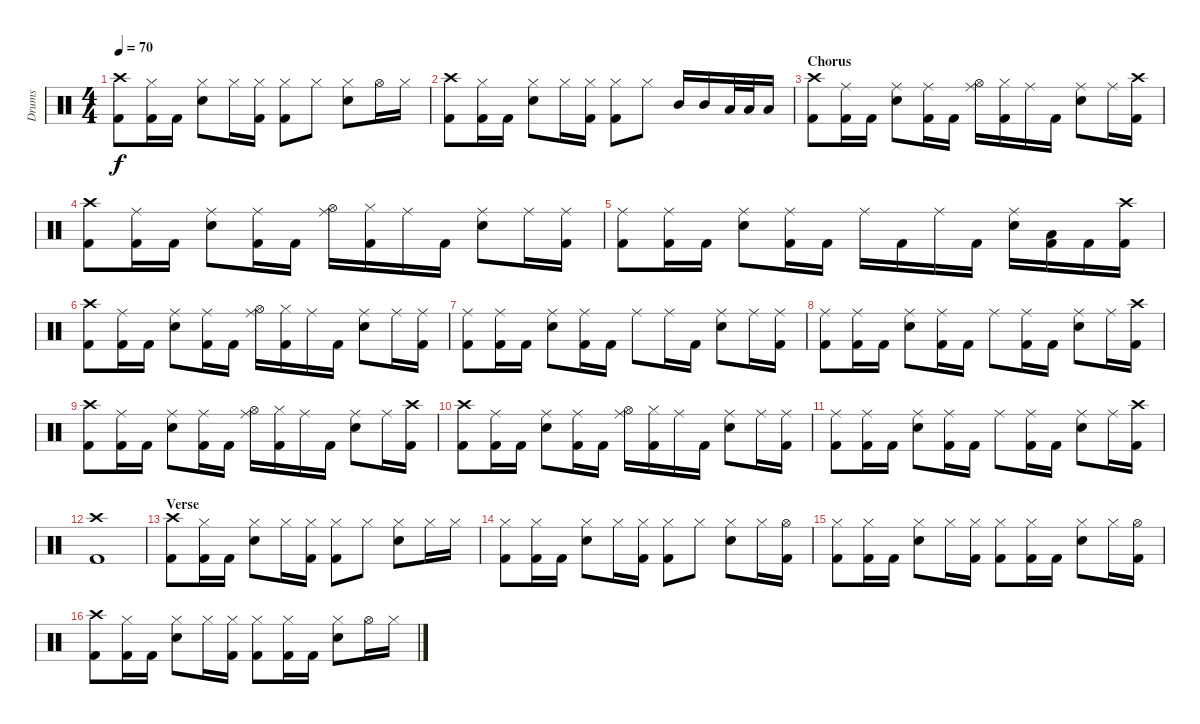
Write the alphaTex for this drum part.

\track ("Drums" "Drums") {instrument percussion}
\staff {score}
\articulation defaults
\ts (4 4)
\tempo 70
\clef neutral
\ks c
("Crash high (hit)" "Kick (hit) 2").8{dy f} ("Hi-Hat (closed)" "Kick (hit) 2").16 "Kick (hit) 2".16 ("Hi-Hat (closed)" "Electric Snare (hit)").8 "Hi-Hat (closed)".16 ("Hi-Hat (closed)" "Kick (hit) 2").16 ("Hi-Hat (closed)" "Kick (hit) 2").8 "Hi-Hat (closed)".8 ("Hi-Hat (closed)" "Electric Snare (hit)").8 "Hi-Hat (open)".16 "Hi-Hat (closed)".16 |
("Crash high (hit)" "Kick (hit) 2").8 ("Hi-Hat (closed)" "Kick (hit) 2").16 "Kick (hit) 2".16 ("Hi-Hat (closed)" "Electric Snare (hit)").8 "Hi-Hat (closed)".16 ("Hi-Hat (closed)" "Kick (hit) 2").16 ("Hi-Hat (closed)" "Kick (hit) 2").8 "Hi-Hat (closed)".8 "Mid Tom (hit)".16 "Mid Tom (hit)".16 "Low Floor Tom (hit)".32 "Low Floor Tom (hit)".32 "Low Tom (hit)".16 |
\section ("" "Chorus")
("Crash high (hit)" "Kick (hit) 2").8 ("Ride (middle)" "Kick (hit) 2").16 "Kick (hit) 2".16 ("Ride (middle)" "Electric Snare (hit)").8 ("Ride (middle)" "Kick (hit) 2").16 "Kick (hit) 2".16 ("Ride (middle)" "Hi-Hat (open)").16 ("Hi-Hat (closed)" "Kick (hit) 2").16 "Ride (middle)".16 "Kick (hit) 2".16 ("Ride (middle)" "Electric Snare (hit)").8 "Ride (middle)".16 ("Crash high (hit)" "Kick (hit) 2").16 |
("Crash high (hit)" "Kick (hit) 2").8 ("Ride (middle)" "Kick (hit) 2").16 "Kick (hit) 2".16 ("Ride (middle)" "Electric Snare (hit)").8 ("Ride (middle)" "Kick (hit) 2").16 "Kick (hit) 2".16 ("Ride (middle)" "Hi-Hat (open)").16 ("Hi-Hat (closed)" "Kick (hit) 2").16 "Ride (middle)".16 "Kick (hit) 2".16 ("Ride (middle)" "Electric Snare (hit)").8 "Ride (middle)".16 ("Ride (middle)" "Kick (hit) 2").16 |
("Ride (middle)" "Kick (hit) 2").8 ("Ride (middle)" "Kick (hit) 2").16 "Kick (hit) 2".16 ("Ride (middle)" "Electric Snare (hit)").8 ("Ride (middle)" "Kick (hit) 2").16 "Kick (hit) 2".16 "Ride (middle)".16 "Kick (hit) 2".16 "Ride (middle)".16 "Kick (hit) 2".16 ("Ride (middle)" "Electric Snare (hit)").16 ("Low Tom (hit)" "Kick (hit) 2").16 "Kick (hit) 2".16 ("Crash high (hit)" "Kick (hit) 2").16 |
("Crash high (hit)" "Kick (hit) 2").8 ("Ride (middle)" "Kick (hit) 2").16 "Kick (hit) 2".16 ("Ride (middle)" "Electric Snare (hit)").8 ("Ride (middle)" "Kick (hit) 2").16 "Kick (hit) 2".16 ("Ride (middle)" "Hi-Hat (open)").16 ("Hi-Hat (closed)" "Kick (hit) 2").16 "Ride (middle)".16 "Kick (hit) 2".16 ("Ride (middle)" "Electric Snare (hit)").8 "Ride (middle)".16 ("Ride (middle)" "Kick (hit) 2").16 |
("Ride (middle)" "Kick (hit) 2").8 ("Ride (middle)" "Kick (hit) 2").16 "Kick (hit) 2".16 ("Ride (middle)" "Electric Snare (hit)").8 ("Ride (middle)" "Kick (hit) 2").16 "Kick (hit) 2".16 "Ride (middle)".8 "Ride (middle)".16 "Kick (hit) 2".16 ("Ride (middle)" "Electric Snare (hit)").8 "Ride (middle)".16 ("Ride (middle)" "Kick (hit) 2").16 |
("Ride (middle)" "Kick (hit) 2").8 ("Ride (middle)" "Kick (hit) 2").16 "Kick (hit) 2".16 ("Ride (middle)" "Electric Snare (hit)").8 ("Ride (middle)" "Kick (hit) 2").16 "Kick (hit) 2".16 "Ride (middle)".8 ("Ride (middle)" "Kick (hit) 2").16 "Kick (hit) 2".16 ("Ride (middle)" "Electric Snare (hit)").8 "Ride (middle)".16 ("Crash high (hit)" "Kick (hit) 2").16 |
("Crash high (hit)" "Kick (hit) 2").8 ("Ride (middle)" "Kick (hit) 2").16 "Kick (hit) 2".16 ("Ride (middle)" "Electric Snare (hit)").8 ("Ride (middle)" "Kick (hit) 2").16 "Kick (hit) 2".16 ("Ride (middle)" "Hi-Hat (open)").16 ("Hi-Hat (closed)" "Kick (hit) 2").16 "Ride (middle)".16 "Kick (hit) 2".16 ("Ride (middle)" "Electric Snare (hit)").8 "Ride (middle)".16 ("Crash high (hit)" "Kick (hit) 2").16 |
("Crash high (hit)" "Kick (hit) 2").8 ("Ride (middle)" "Kick (hit) 2").16 "Kick (hit) 2".16 ("Ride (middle)" "Electric Snare (hit)").8 ("Ride (middle)" "Kick (hit) 2").16 "Kick (hit) 2".16 ("Ride (middle)" "Hi-Hat (open)").16 ("Hi-Hat (closed)" "Kick (hit) 2").16 "Ride (middle)".16 "Kick (hit) 2".16 ("Ride (middle)" "Electric Snare (hit)").8 "Ride (middle)".16 ("Ride (middle)" "Kick (hit) 2").16 |
("Ride (middle)" "Kick (hit) 2").8 ("Ride (middle)" "Kick (hit) 2").16 "Kick (hit) 2".16 ("Ride (middle)" "Electric Snare (hit)").8 ("Ride (middle)" "Kick (hit) 2").16 "Kick (hit) 2".16 "Ride (middle)".8 ("Ride (middle)" "Kick (hit) 2").16 "Kick (hit) 2".16 ("Ride (middle)" "Electric Snare (hit)").8 "Ride (middle)".16 ("Crash high (hit)" "Kick (hit) 2").16 |
("Crash high (hit)" "Kick (hit) 2").1 |
\section ("" "Verse")
("Crash high (hit)" "Kick (hit) 2").8 ("Hi-Hat (closed)" "Kick (hit) 2").16 "Kick (hit) 2".16 ("Hi-Hat (closed)" "Electric Snare (hit)").8 "Hi-Hat (closed)".16 ("Hi-Hat (closed)" "Kick (hit) 2").16 ("Hi-Hat (closed)" "Kick (hit) 2").8 "Hi-Hat (closed)".8 ("Hi-Hat (closed)" "Electric Snare (hit)").8 "Hi-Hat (closed)".16 "Hi-Hat (closed)".16 |
("Hi-Hat (closed)" "Kick (hit) 2").8 ("Hi-Hat (closed)" "Kick (hit) 2").16 "Kick (hit) 2".16 ("Hi-Hat (closed)" "Electric Snare (hit)").8 "Hi-Hat (closed)".16 ("Hi-Hat (closed)" "Kick (hit) 2").16 ("Hi-Hat (closed)" "Kick (hit) 2").8 "Hi-Hat (closed)".8 ("Hi-Hat (closed)" "Electric Snare (hit)").8 "Hi-Hat (closed)".16 ("Hi-Hat (open)" "Kick (hit) 2").16 |
("Hi-Hat (closed)" "Kick (hit) 2").8 ("Hi-Hat (closed)" "Kick (hit) 2").16 "Kick (hit) 2".16 ("Hi-Hat (closed)" "Electric Snare (hit)").8 "Hi-Hat (closed)".16 ("Hi-Hat (closed)" "Kick (hit) 2").16 ("Hi-Hat (closed)" "Kick (hit) 2").8 ("Hi-Hat (closed)" "Kick (hit) 2").16 "Kick (hit) 2".16 ("Hi-Hat (closed)" "Electric Snare (hit)").8 "Hi-Hat (closed)".16 ("Hi-Hat (open)" "Kick (hit) 2").16 |
("Crash high (hit)" "Kick (hit) 2").8 ("Hi-Hat (closed)" "Kick (hit) 2").16 "Kick (hit) 2".16 ("Hi-Hat (closed)" "Electric Snare (hit)").8 "Hi-Hat (closed)".16 ("Hi-Hat (closed)" "Kick (hit) 2").16 ("Hi-Hat (closed)" "Kick (hit) 2").8 ("Hi-Hat (closed)" "Kick (hit) 2").16 "Kick (hit) 2".16 ("Hi-Hat (closed)" "Electric Snare (hit)").8 "Hi-Hat (open)".16 "Hi-Hat (closed)".16
